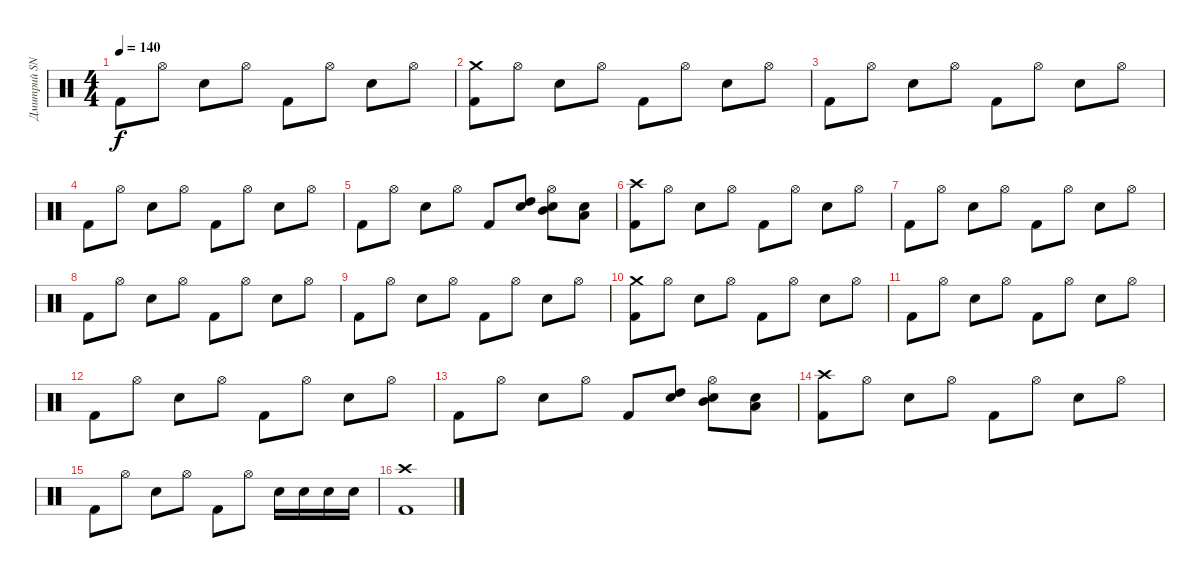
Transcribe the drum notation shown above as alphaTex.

\track ("Дмитрий SNAKE Хакимов" "Дмитрий SN") {instrument percussion}
\staff {score}
\articulation defaults
\ts (4 4)
\tempo 140
\clef neutral
\ks c "Kick (hit) 2".8{dy f} "Hi-Hat (open)".8 "Electric Snare (hit)".8 "Hi-Hat (open)".8 "Kick (hit) 2".8 "Hi-Hat (open)".8 "Electric Snare (hit)".8 "Hi-Hat (open)".8
|
("Crash medium (hit)" "Kick (hit) 2").8 "Hi-Hat (open)".8 "Electric Snare (hit)".8 "Hi-Hat (open)".8 "Kick (hit) 2".8 "Hi-Hat (open)".8 "Electric Snare (hit)".8 "Hi-Hat (open)".8 |
"Kick (hit) 2".8 "Hi-Hat (open)".8 "Electric Snare (hit)".8 "Hi-Hat (open)".8 "Kick (hit) 2".8 "Hi-Hat (open)".8 "Electric Snare (hit)".8 "Hi-Hat (open)".8 |
"Kick (hit) 2".8 "Hi-Hat (open)".8 "Electric Snare (hit)".8 "Hi-Hat (open)".8 "Kick (hit) 2".8 "Hi-Hat (open)".8 "Electric Snare (hit)".8 "Hi-Hat (open)".8 |
"Kick (hit) 2".8 "Hi-Hat (open)".8 "Electric Snare (hit)".8 "Hi-Hat (open)".8 "Kick (hit) 2".8 ("High Tom (hit)" "Electric Snare (hit)").8 ("Hi-Hat (open)" "Mid Tom (hit)" "Electric Snare (hit)").8 ("Low Tom (hit)" "Electric Snare (hit)").8 |
("Crash high (hit)" "Kick (hit) 2").8 "Hi-Hat (open)".8 "Electric Snare (hit)".8 "Hi-Hat (open)".8 "Kick (hit) 2".8 "Hi-Hat (open)".8 "Electric Snare (hit)".8 "Hi-Hat (open)".8 |
"Kick (hit) 2".8 "Hi-Hat (open)".8 "Electric Snare (hit)".8 "Hi-Hat (open)".8 "Kick (hit) 2".8 "Hi-Hat (open)".8 "Electric Snare (hit)".8 "Hi-Hat (open)".8 |
"Kick (hit) 2".8 "Hi-Hat (open)".8 "Electric Snare (hit)".8 "Hi-Hat (open)".8 "Kick (hit) 2".8 "Hi-Hat (open)".8 "Electric Snare (hit)".8 "Hi-Hat (open)".8 |
"Kick (hit) 2".8 "Hi-Hat (open)".8 "Electric Snare (hit)".8 "Hi-Hat (open)".8 "Kick (hit) 2".8 "Hi-Hat (open)".8 "Electric Snare (hit)".8 "Hi-Hat (open)".8 |
("Crash medium (hit)" "Kick (hit) 2").8 "Hi-Hat (open)".8 "Electric Snare (hit)".8 "Hi-Hat (open)".8 "Kick (hit) 2".8 "Hi-Hat (open)".8 "Electric Snare (hit)".8 "Hi-Hat (open)".8 |
"Kick (hit) 2".8 "Hi-Hat (open)".8 "Electric Snare (hit)".8 "Hi-Hat (open)".8 "Kick (hit) 2".8 "Hi-Hat (open)".8 "Electric Snare (hit)".8 "Hi-Hat (open)".8 |
"Kick (hit) 2".8 "Hi-Hat (open)".8 "Electric Snare (hit)".8 "Hi-Hat (open)".8 "Kick (hit) 2".8 "Hi-Hat (open)".8 "Electric Snare (hit)".8 "Hi-Hat (open)".8 |
"Kick (hit) 2".8 "Hi-Hat (open)".8 "Electric Snare (hit)".8 "Hi-Hat (open)".8 "Kick (hit) 2".8 ("High Tom (hit)" "Electric Snare (hit)").8 ("Hi-Hat (open)" "Mid Tom (hit)" "Electric Snare (hit)").8 ("Low Tom (hit)" "Electric Snare (hit)").8 |
("Crash high (hit)" "Kick (hit) 2").8 "Hi-Hat (open)".8 "Electric Snare (hit)".8 "Hi-Hat (open)".8 "Kick (hit) 2".8 "Hi-Hat (open)".8 "Electric Snare (hit)".8 "Hi-Hat (open)".8 |
"Kick (hit) 2".8 "Hi-Hat (open)".8 "Electric Snare (hit)".8 "Hi-Hat (open)".8 "Kick (hit) 2".8 "Hi-Hat (open)".8 "Electric Snare (hit)".16 "Electric Snare (hit)".16 "Electric Snare (hit)".16 "Electric Snare (hit)".16 |
("Crash high (hit)" "Kick (hit) 2").1
